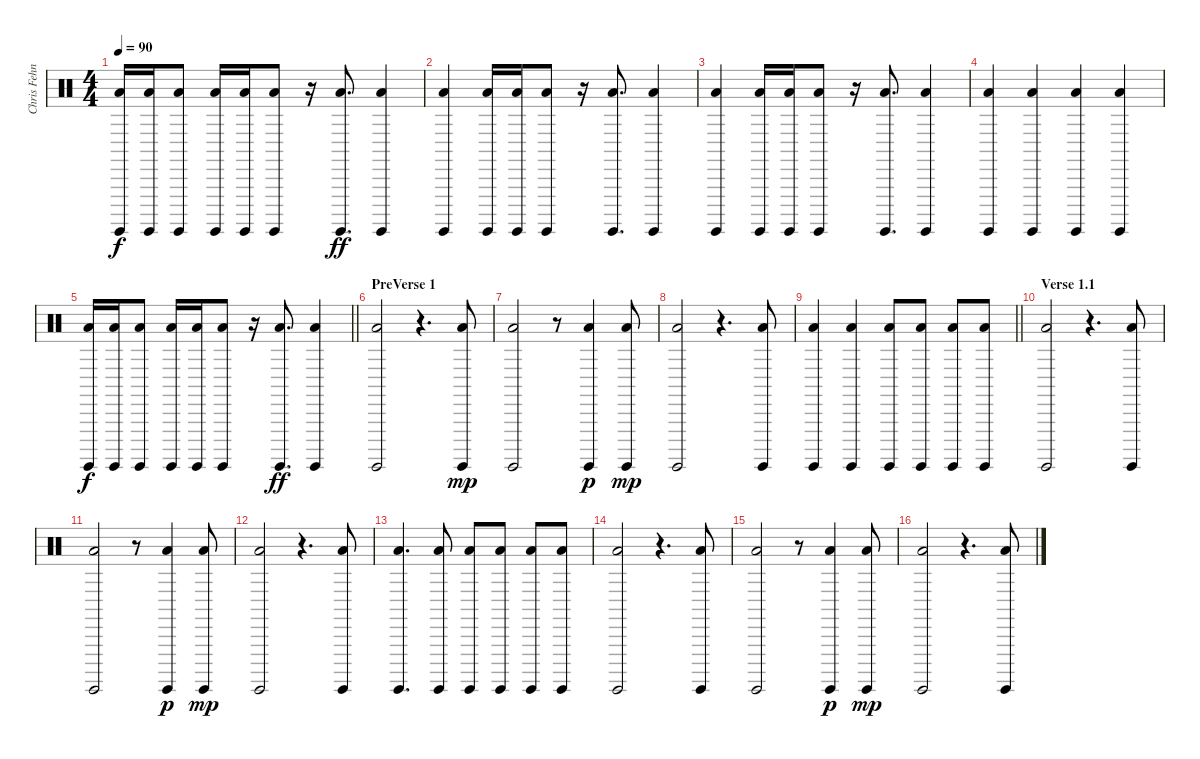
\track ("Chris Fehn" "Chris Fehn") {instrument percussion}
\staff {score}
\articulation defaults
\ts (4 4)
\tempo 90
\clef neutral
\ks c
("Surdo (hit)" "Low Floor Tom (hit)").16{dy f} ("Surdo (hit)" "Low Floor Tom (hit)").16 ("Surdo (hit)" "Low Floor Tom (hit)").8 ("Surdo (hit)" "Low Floor Tom (hit)").16 ("Surdo (hit)" "Low Floor Tom (hit)").16 ("Surdo (hit)" "Low Floor Tom (hit)").8 r.16 ("Surdo (hit)" "Low Floor Tom (hit)").8{d dy ff} ("Surdo (hit)" "Low Floor Tom (hit)").4 |
("Surdo (hit)" "Low Floor Tom (hit)").4 ("Surdo (hit)" "Low Floor Tom (hit)").16 ("Surdo (hit)" "Low Floor Tom (hit)").16 ("Surdo (hit)" "Low Floor Tom (hit)").8 r.16 ("Surdo (hit)" "Low Floor Tom (hit)").8{d} ("Surdo (hit)" "Low Floor Tom (hit)").4 |
("Surdo (hit)" "Low Floor Tom (hit)").4 ("Surdo (hit)" "Low Floor Tom (hit)").16 ("Surdo (hit)" "Low Floor Tom (hit)").16 ("Surdo (hit)" "Low Floor Tom (hit)").8 r.16 ("Surdo (hit)" "Low Floor Tom (hit)").8{d} ("Surdo (hit)" "Low Floor Tom (hit)").4 |
("Surdo (hit)" "Low Floor Tom (hit)").4 ("Surdo (hit)" "Low Floor Tom (hit)").4 ("Surdo (hit)" "Low Floor Tom (hit)").4 ("Surdo (hit)" "Low Floor Tom (hit)").4 |
\barLineRight lightlight
("Surdo (hit)" "Low Floor Tom (hit)").16{dy f} ("Surdo (hit)" "Low Floor Tom (hit)").16 ("Surdo (hit)" "Low Floor Tom (hit)").8 ("Surdo (hit)" "Low Floor Tom (hit)").16 ("Surdo (hit)" "Low Floor Tom (hit)").16 ("Surdo (hit)" "Low Floor Tom (hit)").8 r.16 ("Surdo (hit)" "Low Floor Tom (hit)").8{d dy ff} ("Surdo (hit)" "Low Floor Tom (hit)").4 |
\section ("" "PreVerse 1")
("Surdo (hit)" "Low Floor Tom (hit)").2 r.4{d} ("Surdo (hit)" "Low Floor Tom (hit)").8{dy mp} |
("Surdo (hit)" "Low Floor Tom (hit)").2 r.8 ("Surdo (hit)" "Low Floor Tom (hit)").4{dy p} ("Surdo (hit)" "Low Floor Tom (hit)").8{dy mp} |
("Surdo (hit)" "Low Floor Tom (hit)").2 r.4{d} ("Surdo (hit)" "Low Floor Tom (hit)").8 |
\barLineRight lightlight
("Surdo (hit)" "Low Floor Tom (hit)").4 ("Surdo (hit)" "Low Floor Tom (hit)").4 ("Surdo (hit)" "Low Floor Tom (hit)").8 ("Surdo (hit)" "Low Floor Tom (hit)").8 ("Surdo (hit)" "Low Floor Tom (hit)").8 ("Surdo (hit)" "Low Floor Tom (hit)").8 |
\section ("" "Verse 1.1")
("Surdo (hit)" "Low Floor Tom (hit)").2 r.4{d} ("Surdo (hit)" "Low Floor Tom (hit)").8 |
("Surdo (hit)" "Low Floor Tom (hit)").2 r.8 ("Surdo (hit)" "Low Floor Tom (hit)").4{dy p} ("Surdo (hit)" "Low Floor Tom (hit)").8{dy mp} |
("Surdo (hit)" "Low Floor Tom (hit)").2 r.4{d} ("Surdo (hit)" "Low Floor Tom (hit)").8 |
("Surdo (hit)" "Low Floor Tom (hit)").4{d} ("Surdo (hit)" "Low Floor Tom (hit)").8 ("Surdo (hit)" "Low Floor Tom (hit)").8 ("Surdo (hit)" "Low Floor Tom (hit)").8 ("Surdo (hit)" "Low Floor Tom (hit)").8 ("Surdo (hit)" "Low Floor Tom (hit)").8 |
("Surdo (hit)" "Low Floor Tom (hit)").2 r.4{d} ("Surdo (hit)" "Low Floor Tom (hit)").8 |
("Surdo (hit)" "Low Floor Tom (hit)").2 r.8 ("Surdo (hit)" "Low Floor Tom (hit)").4{dy p} ("Surdo (hit)" "Low Floor Tom (hit)").8{dy mp} |
("Surdo (hit)" "Low Floor Tom (hit)").2 r.4{d} ("Surdo (hit)" "Low Floor Tom (hit)").8
